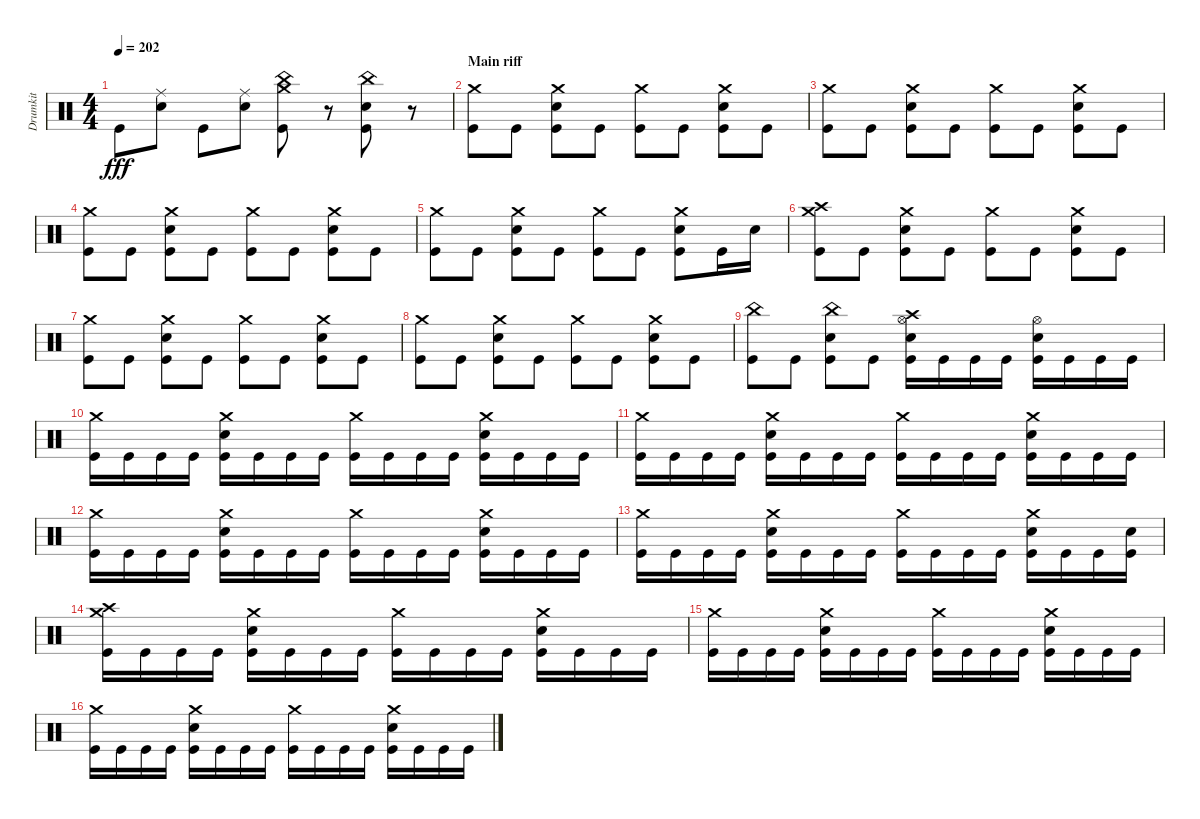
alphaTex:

\track ("Drumkit" "Drumkit") {instrument percussion}
\staff {score}
\articulation defaults
\ts (4 4)
\tempo 202
\clef neutral
\ks c "Kick (hit)".8{dy fff}
("Ride (middle)" "Snare (hit) 2").8 "Kick (hit)".8 ("Ride (middle)" "Snare (hit) 2").8 ("China (hit)" "Crash medium (hit)" "Kick (hit)").8 r.8 ("China (hit)" "Snare (hit) 2" "Kick (hit)").8 r.8 |
\section ("" "Main riff")
("Crash medium (hit)" "Kick (hit)").8 "Kick (hit)".8 ("Crash medium (hit)" "Snare (hit) 2" "Kick (hit)").8 "Kick (hit)".8 ("Crash medium (hit)" "Kick (hit)").8 "Kick (hit)".8 ("Crash medium (hit)" "Snare (hit) 2" "Kick (hit)").8 "Kick (hit)".8 |
("Crash medium (hit)" "Kick (hit)").8 "Kick (hit)".8 ("Crash medium (hit)" "Snare (hit) 2" "Kick (hit)").8 "Kick (hit)".8 ("Crash medium (hit)" "Kick (hit)").8 "Kick (hit)".8 ("Crash medium (hit)" "Snare (hit) 2" "Kick (hit)").8 "Kick (hit)".8 |
("Crash medium (hit)" "Kick (hit)").8 "Kick (hit)".8 ("Crash medium (hit)" "Snare (hit) 2" "Kick (hit)").8 "Kick (hit)".8 ("Crash medium (hit)" "Kick (hit)").8 "Kick (hit)".8 ("Crash medium (hit)" "Snare (hit) 2" "Kick (hit)").8 "Kick (hit)".8 |
("Crash medium (hit)" "Kick (hit)").8 "Kick (hit)".8 ("Crash medium (hit)" "Snare (hit) 2" "Kick (hit)").8 "Kick (hit)".8 ("Crash medium (hit)" "Kick (hit)").8 "Kick (hit)".8 ("Crash medium (hit)" "Snare (hit) 2" "Kick (hit)").8 "Kick (hit)".16 "Snare (hit) 2".16 |
("Crash high (hit)" "Crash medium (hit)" "Kick (hit)").8 "Kick (hit)".8 ("Crash medium (hit)" "Snare (hit) 2" "Kick (hit)").8 "Kick (hit)".8 ("Crash medium (hit)" "Kick (hit)").8 "Kick (hit)".8 ("Crash medium (hit)" "Snare (hit) 2" "Kick (hit)").8 "Kick (hit)".8 |
("Crash medium (hit)" "Kick (hit)").8 "Kick (hit)".8 ("Crash medium (hit)" "Snare (hit) 2" "Kick (hit)").8 "Kick (hit)".8 ("Crash medium (hit)" "Kick (hit)").8 "Kick (hit)".8 ("Crash medium (hit)" "Snare (hit) 2" "Kick (hit)").8 "Kick (hit)".8 |
("Crash medium (hit)" "Kick (hit)").8 "Kick (hit)".8 ("Crash medium (hit)" "Snare (hit) 2" "Kick (hit)").8 "Kick (hit)".8 ("Crash medium (hit)" "Kick (hit)").8 "Kick (hit)".8 ("Crash medium (hit)" "Snare (hit) 2" "Kick (hit)").8 "Kick (hit)".8 |
("China (hit)" "Kick (hit)").8 "Kick (hit)".8 ("China (hit)" "Snare (hit) 2" "Kick (hit)").8 "Kick (hit)".8 ("Crash high (hit)" "Snare (hit) 2" "Hi-Hat (open)" "Kick (hit)").16 "Kick (hit)".16 "Kick (hit)".16 "Kick (hit)".16 ("Snare (hit) 2" "Hi-Hat (open)" "Kick (hit)").16 "Kick (hit)".16 "Kick (hit)".16 "Kick (hit)".16 |
("Crash medium (hit)" "Kick (hit)").16 "Kick (hit)".16 "Kick (hit)".16 "Kick (hit)".16 ("Crash medium (hit)" "Snare (hit) 2" "Kick (hit)").16 "Kick (hit)".16 "Kick (hit)".16 "Kick (hit)".16 ("Crash medium (hit)" "Kick (hit)").16 "Kick (hit)".16 "Kick (hit)".16 "Kick (hit)".16 ("Crash medium (hit)" "Snare (hit) 2" "Kick (hit)").16 "Kick (hit)".16 "Kick (hit)".16 "Kick (hit)".16 |
("Crash medium (hit)" "Kick (hit)").16 "Kick (hit)".16 "Kick (hit)".16 "Kick (hit)".16 ("Crash medium (hit)" "Snare (hit) 2" "Kick (hit)").16 "Kick (hit)".16 "Kick (hit)".16 "Kick (hit)".16 ("Crash medium (hit)" "Kick (hit)").16 "Kick (hit)".16 "Kick (hit)".16 "Kick (hit)".16 ("Crash medium (hit)" "Snare (hit) 2" "Kick (hit)").16 "Kick (hit)".16 "Kick (hit)".16 "Kick (hit)".16 |
("Crash medium (hit)" "Kick (hit)").16 "Kick (hit)".16 "Kick (hit)".16 "Kick (hit)".16 ("Crash medium (hit)" "Snare (hit) 2" "Kick (hit)").16 "Kick (hit)".16 "Kick (hit)".16 "Kick (hit)".16 ("Crash medium (hit)" "Kick (hit)").16 "Kick (hit)".16 "Kick (hit)".16 "Kick (hit)".16 ("Crash medium (hit)" "Snare (hit) 2" "Kick (hit)").16 "Kick (hit)".16 "Kick (hit)".16 "Kick (hit)".16 |
("Crash medium (hit)" "Kick (hit)").16 "Kick (hit)".16 "Kick (hit)".16 "Kick (hit)".16 ("Crash medium (hit)" "Snare (hit) 2" "Kick (hit)").16 "Kick (hit)".16 "Kick (hit)".16 "Kick (hit)".16 ("Crash medium (hit)" "Kick (hit)").16 "Kick (hit)".16 "Kick (hit)".16 "Kick (hit)".16 ("Crash medium (hit)" "Snare (hit) 2" "Kick (hit)").16 "Kick (hit)".16 "Kick (hit)".16 ("Snare (hit) 2" "Kick (hit)").16 |
("Crash medium (hit)" "Crash high (hit)" "Kick (hit)").16 "Kick (hit)".16 "Kick (hit)".16 "Kick (hit)".16 ("Crash medium (hit)" "Snare (hit) 2" "Kick (hit)").16 "Kick (hit)".16 "Kick (hit)".16 "Kick (hit)".16 ("Crash medium (hit)" "Kick (hit)").16 "Kick (hit)".16 "Kick (hit)".16 "Kick (hit)".16 ("Crash medium (hit)" "Snare (hit) 2" "Kick (hit)").16 "Kick (hit)".16 "Kick (hit)".16 "Kick (hit)".16 |
("Crash medium (hit)" "Kick (hit)").16 "Kick (hit)".16 "Kick (hit)".16 "Kick (hit)".16 ("Crash medium (hit)" "Snare (hit) 2" "Kick (hit)").16 "Kick (hit)".16 "Kick (hit)".16 "Kick (hit)".16 ("Crash medium (hit)" "Kick (hit)").16 "Kick (hit)".16 "Kick (hit)".16 "Kick (hit)".16 ("Crash medium (hit)" "Snare (hit) 2" "Kick (hit)").16 "Kick (hit)".16 "Kick (hit)".16 "Kick (hit)".16 |
("Crash medium (hit)" "Kick (hit)").16 "Kick (hit)".16 "Kick (hit)".16 "Kick (hit)".16 ("Crash medium (hit)" "Snare (hit) 2" "Kick (hit)").16 "Kick (hit)".16 "Kick (hit)".16 "Kick (hit)".16 ("Crash medium (hit)" "Kick (hit)").16 "Kick (hit)".16 "Kick (hit)".16 "Kick (hit)".16 ("Crash medium (hit)" "Snare (hit) 2" "Kick (hit)").16 "Kick (hit)".16 "Kick (hit)".16 "Kick (hit)".16
